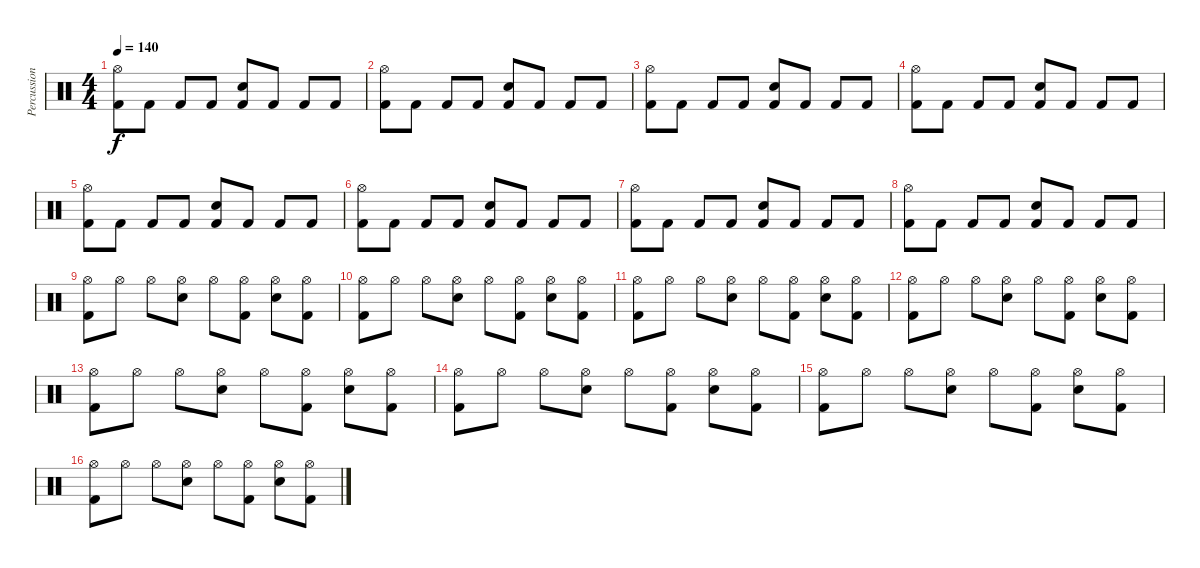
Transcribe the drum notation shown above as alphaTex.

\track ("Percussion" "Percussion") {instrument percussion}
\staff {score}
\articulation defaults
\ts (4 4)
\tempo 140
\clef neutral
\ks c
("Hi-Hat (open)" "Kick (hit) 2").8{dy f} "Kick (hit) 2".8 "Kick (hit) 2".8 "Kick (hit) 2".8 ("Electric Snare (hit)" "Kick (hit) 2").8 "Kick (hit) 2".8 "Kick (hit) 2".8 "Kick (hit) 2".8 |
("Hi-Hat (open)" "Kick (hit) 2").8 "Kick (hit) 2".8 "Kick (hit) 2".8 "Kick (hit) 2".8 ("Electric Snare (hit)" "Kick (hit) 2").8 "Kick (hit) 2".8 "Kick (hit) 2".8 "Kick (hit) 2".8 |
("Hi-Hat (open)" "Kick (hit) 2").8 "Kick (hit) 2".8 "Kick (hit) 2".8 "Kick (hit) 2".8 ("Electric Snare (hit)" "Kick (hit) 2").8 "Kick (hit) 2".8 "Kick (hit) 2".8 "Kick (hit) 2".8 |
("Hi-Hat (open)" "Kick (hit) 2").8 "Kick (hit) 2".8 "Kick (hit) 2".8 "Kick (hit) 2".8 ("Electric Snare (hit)" "Kick (hit) 2").8 "Kick (hit) 2".8 "Kick (hit) 2".8 "Kick (hit) 2".8 |
("Hi-Hat (open)" "Kick (hit) 2").8 "Kick (hit) 2".8 "Kick (hit) 2".8 "Kick (hit) 2".8 ("Electric Snare (hit)" "Kick (hit) 2").8 "Kick (hit) 2".8 "Kick (hit) 2".8 "Kick (hit) 2".8 |
("Hi-Hat (open)" "Kick (hit) 2").8 "Kick (hit) 2".8 "Kick (hit) 2".8 "Kick (hit) 2".8 ("Electric Snare (hit)" "Kick (hit) 2").8 "Kick (hit) 2".8 "Kick (hit) 2".8 "Kick (hit) 2".8 |
("Hi-Hat (open)" "Kick (hit) 2").8 "Kick (hit) 2".8 "Kick (hit) 2".8 "Kick (hit) 2".8 ("Electric Snare (hit)" "Kick (hit) 2").8 "Kick (hit) 2".8 "Kick (hit) 2".8 "Kick (hit) 2".8 |
("Hi-Hat (open)" "Kick (hit) 2").8 "Kick (hit) 2".8 "Kick (hit) 2".8 "Kick (hit) 2".8 ("Electric Snare (hit)" "Kick (hit) 2").8 "Kick (hit) 2".8 "Kick (hit) 2".8 "Kick (hit) 2".8 |
("Hi-Hat (open)" "Kick (hit) 2").8 "Hi-Hat (open)".8 "Hi-Hat (open)".8 ("Hi-Hat (open)" "Electric Snare (hit)").8 "Hi-Hat (open)".8 ("Hi-Hat (open)" "Kick (hit) 2").8 ("Hi-Hat (open)" "Electric Snare (hit)").8 ("Hi-Hat (open)" "Kick (hit) 2").8 |
("Hi-Hat (open)" "Kick (hit) 2").8 "Hi-Hat (open)".8 "Hi-Hat (open)".8 ("Hi-Hat (open)" "Electric Snare (hit)").8 "Hi-Hat (open)".8 ("Hi-Hat (open)" "Kick (hit) 2").8 ("Hi-Hat (open)" "Electric Snare (hit)").8 ("Hi-Hat (open)" "Kick (hit) 2").8 |
("Hi-Hat (open)" "Kick (hit) 2").8 "Hi-Hat (open)".8 "Hi-Hat (open)".8 ("Hi-Hat (open)" "Electric Snare (hit)").8 "Hi-Hat (open)".8 ("Hi-Hat (open)" "Kick (hit) 2").8 ("Hi-Hat (open)" "Electric Snare (hit)").8 ("Hi-Hat (open)" "Kick (hit) 2").8 |
("Hi-Hat (open)" "Kick (hit) 2").8 "Hi-Hat (open)".8 "Hi-Hat (open)".8 ("Hi-Hat (open)" "Electric Snare (hit)").8 "Hi-Hat (open)".8 ("Hi-Hat (open)" "Kick (hit) 2").8 ("Hi-Hat (open)" "Electric Snare (hit)").8 ("Hi-Hat (open)" "Kick (hit) 2").8 |
("Hi-Hat (open)" "Kick (hit) 2").8 "Hi-Hat (open)".8 "Hi-Hat (open)".8 ("Hi-Hat (open)" "Electric Snare (hit)").8 "Hi-Hat (open)".8 ("Hi-Hat (open)" "Kick (hit) 2").8 ("Hi-Hat (open)" "Electric Snare (hit)").8 ("Hi-Hat (open)" "Kick (hit) 2").8 |
("Hi-Hat (open)" "Kick (hit) 2").8 "Hi-Hat (open)".8 "Hi-Hat (open)".8 ("Hi-Hat (open)" "Electric Snare (hit)").8 "Hi-Hat (open)".8 ("Hi-Hat (open)" "Kick (hit) 2").8 ("Hi-Hat (open)" "Electric Snare (hit)").8 ("Hi-Hat (open)" "Kick (hit) 2").8 |
("Hi-Hat (open)" "Kick (hit) 2").8 "Hi-Hat (open)".8 "Hi-Hat (open)".8 ("Hi-Hat (open)" "Electric Snare (hit)").8 "Hi-Hat (open)".8 ("Hi-Hat (open)" "Kick (hit) 2").8 ("Hi-Hat (open)" "Electric Snare (hit)").8 ("Hi-Hat (open)" "Kick (hit) 2").8 |
("Hi-Hat (open)" "Kick (hit) 2").8 "Hi-Hat (open)".8 "Hi-Hat (open)".8 ("Hi-Hat (open)" "Electric Snare (hit)").8 "Hi-Hat (open)".8 ("Hi-Hat (open)" "Kick (hit) 2").8 ("Hi-Hat (open)" "Electric Snare (hit)").8 ("Hi-Hat (open)" "Kick (hit) 2").8
